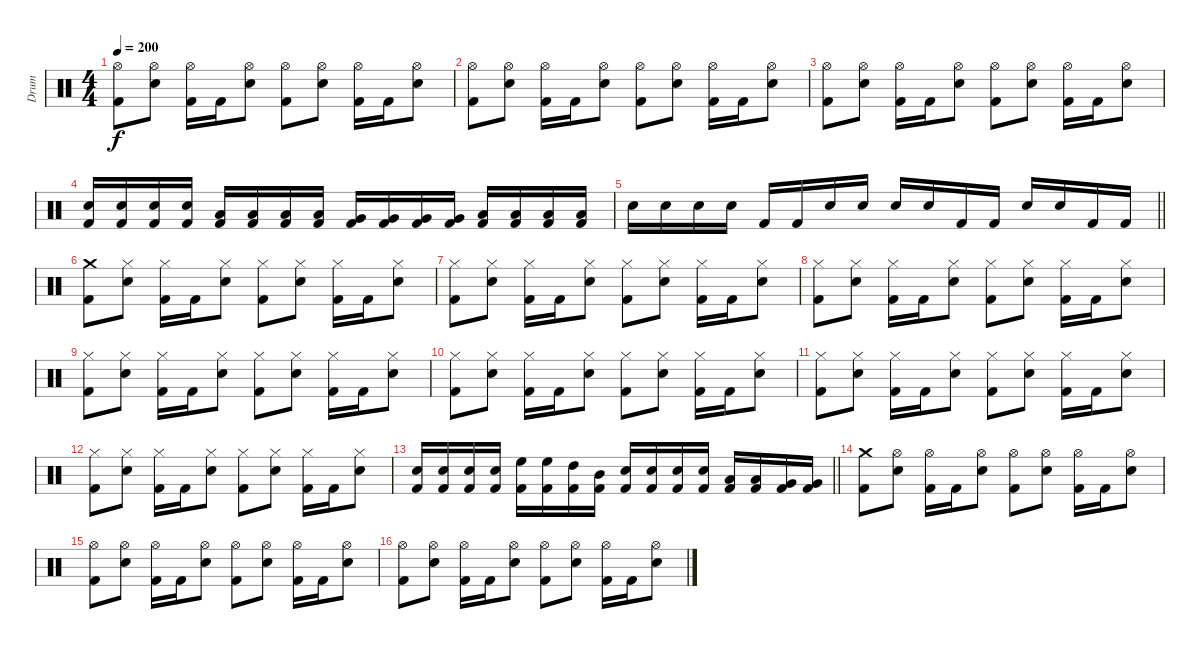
\track ("Drum" "Drum") {instrument percussion}
\staff {score}
\articulation defaults
\ts (4 4)
\tempo 200
\clef neutral
\ks c
("Kick (hit) 2" "Hi-Hat (open)").8{dy f} ("Snare (hit) 2" "Hi-Hat (open)").8 ("Kick (hit) 2" "Hi-Hat (open)").16 "Kick (hit) 2".16 ("Snare (hit) 2" "Hi-Hat (open)").8 ("Kick (hit) 2" "Hi-Hat (open)").8 ("Snare (hit) 2" "Hi-Hat (open)").8 ("Kick (hit) 2" "Hi-Hat (open)").16 "Kick (hit) 2".16 ("Snare (hit) 2" "Hi-Hat (open)").8 |
("Kick (hit) 2" "Hi-Hat (open)").8 ("Snare (hit) 2" "Hi-Hat (open)").8 ("Kick (hit) 2" "Hi-Hat (open)").16 "Kick (hit) 2".16 ("Snare (hit) 2" "Hi-Hat (open)").8 ("Kick (hit) 2" "Hi-Hat (open)").8 ("Snare (hit) 2" "Hi-Hat (open)").8 ("Kick (hit) 2" "Hi-Hat (open)").16 "Kick (hit) 2".16 ("Snare (hit) 2" "Hi-Hat (open)").8 |
("Kick (hit) 2" "Hi-Hat (open)").8 ("Snare (hit) 2" "Hi-Hat (open)").8 ("Kick (hit) 2" "Hi-Hat (open)").16 "Kick (hit) 2".16 ("Snare (hit) 2" "Hi-Hat (open)").8 ("Kick (hit) 2" "Hi-Hat (open)").8 ("Snare (hit) 2" "Hi-Hat (open)").8 ("Kick (hit) 2" "Hi-Hat (open)").16 "Kick (hit) 2".16 ("Snare (hit) 2" "Hi-Hat (open)").8 |
("Kick (hit) 2" "Snare (hit) 2").16 ("Kick (hit) 2" "Snare (hit) 2").16 ("Kick (hit) 2" "Snare (hit) 2").16 ("Kick (hit) 2" "Snare (hit) 2").16 ("Kick (hit) 2" "Low Tom (hit)").16 ("Kick (hit) 2" "Low Tom (hit)").16 ("Kick (hit) 2" "Low Tom (hit)").16 ("Kick (hit) 2" "Low Tom (hit)").16 ("Kick (hit) 2" "Very Low Tom (hit)").16 ("Kick (hit) 2" "Very Low Tom (hit)").16 ("Kick (hit) 2" "Very Low Tom (hit)").16 ("Kick (hit) 2" "Very Low Tom (hit)").16 ("Kick (hit) 2" "Low Floor Tom (hit)").16 ("Kick (hit) 2" "Low Floor Tom (hit)").16 ("Kick (hit) 2" "Low Floor Tom (hit)").16 ("Kick (hit) 2" "Low Floor Tom (hit)").16 |
\barLineRight lightlight "Snare (hit) 2".16 "Snare (hit) 2".16 "Snare (hit) 2".16 "Snare (hit) 2".16 "Kick (hit) 2".16 "Kick (hit) 2".16 "Snare (hit) 2".16 "Snare (hit) 2".16 "Snare (hit) 2".16 "Snare (hit) 2".16 "Kick (hit) 2".16 "Kick (hit) 2".16 "Snare (hit) 2".16 "Snare (hit) 2".16 "Kick (hit) 2".16 "Kick (hit) 2".16
|
\section ("" "")
("Kick (hit) 2" "Crash medium (hit)").8 ("Snare (hit) 2" "Hi-Hat (closed)").8 ("Kick (hit) 2" "Hi-Hat (closed)").16 "Kick (hit) 2".16 ("Snare (hit) 2" "Hi-Hat (closed)").8 ("Kick (hit) 2" "Hi-Hat (closed)").8 ("Snare (hit) 2" "Hi-Hat (closed)").8 ("Kick (hit) 2" "Hi-Hat (closed)").16 "Kick (hit) 2".16 ("Snare (hit) 2" "Hi-Hat (closed)").8 |
("Kick (hit) 2" "Hi-Hat (closed)").8 ("Snare (hit) 2" "Hi-Hat (closed)").8 ("Kick (hit) 2" "Hi-Hat (closed)").16 "Kick (hit) 2".16 ("Snare (hit) 2" "Hi-Hat (closed)").8 ("Kick (hit) 2" "Hi-Hat (closed)").8 ("Snare (hit) 2" "Hi-Hat (closed)").8 ("Kick (hit) 2" "Hi-Hat (closed)").16 "Kick (hit) 2".16 ("Snare (hit) 2" "Hi-Hat (closed)").8 |
("Kick (hit) 2" "Hi-Hat (closed)").8 ("Snare (hit) 2" "Hi-Hat (closed)").8 ("Kick (hit) 2" "Hi-Hat (closed)").16 "Kick (hit) 2".16 ("Snare (hit) 2" "Hi-Hat (closed)").8 ("Kick (hit) 2" "Hi-Hat (closed)").8 ("Snare (hit) 2" "Hi-Hat (closed)").8 ("Kick (hit) 2" "Hi-Hat (closed)").16 "Kick (hit) 2".16 ("Snare (hit) 2" "Hi-Hat (closed)").8 |
("Kick (hit) 2" "Hi-Hat (closed)").8 ("Snare (hit) 2" "Hi-Hat (closed)").8 ("Kick (hit) 2" "Hi-Hat (closed)").16 "Kick (hit) 2".16 ("Snare (hit) 2" "Hi-Hat (closed)").8 ("Kick (hit) 2" "Hi-Hat (closed)").8 ("Snare (hit) 2" "Hi-Hat (closed)").8 ("Kick (hit) 2" "Hi-Hat (closed)").16 "Kick (hit) 2".16 ("Snare (hit) 2" "Hi-Hat (closed)").8 |
("Kick (hit) 2" "Hi-Hat (closed)").8 ("Snare (hit) 2" "Hi-Hat (closed)").8 ("Kick (hit) 2" "Hi-Hat (closed)").16 "Kick (hit) 2".16 ("Snare (hit) 2" "Hi-Hat (closed)").8 ("Kick (hit) 2" "Hi-Hat (closed)").8 ("Snare (hit) 2" "Hi-Hat (closed)").8 ("Kick (hit) 2" "Hi-Hat (closed)").16 "Kick (hit) 2".16 ("Snare (hit) 2" "Hi-Hat (closed)").8 |
("Kick (hit) 2" "Hi-Hat (closed)").8 ("Snare (hit) 2" "Hi-Hat (closed)").8 ("Kick (hit) 2" "Hi-Hat (closed)").16 "Kick (hit) 2".16 ("Snare (hit) 2" "Hi-Hat (closed)").8 ("Kick (hit) 2" "Hi-Hat (closed)").8 ("Snare (hit) 2" "Hi-Hat (closed)").8 ("Kick (hit) 2" "Hi-Hat (closed)").16 "Kick (hit) 2".16 ("Snare (hit) 2" "Hi-Hat (closed)").8 |
("Kick (hit) 2" "Hi-Hat (closed)").8 ("Snare (hit) 2" "Hi-Hat (closed)").8 ("Kick (hit) 2" "Hi-Hat (closed)").16 "Kick (hit) 2".16 ("Snare (hit) 2" "Hi-Hat (closed)").8 ("Kick (hit) 2" "Hi-Hat (closed)").8 ("Snare (hit) 2" "Hi-Hat (closed)").8 ("Kick (hit) 2" "Hi-Hat (closed)").16 "Kick (hit) 2".16 ("Snare (hit) 2" "Hi-Hat (closed)").8 |
\barLineRight lightlight
("Kick (hit) 2" "Snare (hit) 2").16 ("Kick (hit) 2" "Snare (hit) 2").16 ("Kick (hit) 2" "Snare (hit) 2").16 ("Kick (hit) 2" "Snare (hit) 2").16 ("Kick (hit) 2" "High Floor Tom (hit)").16 ("Kick (hit) 2" "High Floor Tom (hit)").16 ("Kick (hit) 2" "High Tom (hit)").16 ("Kick (hit) 2" "Mid Tom (hit)").16 ("Kick (hit) 2" "Snare (hit) 2").16 ("Kick (hit) 2" "Snare (hit) 2").16 ("Kick (hit) 2" "Snare (hit) 2").16 ("Kick (hit) 2" "Snare (hit) 2").16 ("Kick (hit) 2" "Low Tom (hit)").16 ("Kick (hit) 2" "Low Tom (hit)").16 ("Kick (hit) 2" "Very Low Tom (hit)").16 ("Kick (hit) 2" "Very Low Tom (hit)").16 |
\section ("" "")
("Kick (hit) 2" "Crash medium (hit)").8 ("Snare (hit) 2" "Hi-Hat (open)").8 ("Kick (hit) 2" "Hi-Hat (open)").16 "Kick (hit) 2".16 ("Snare (hit) 2" "Hi-Hat (open)").8 ("Kick (hit) 2" "Hi-Hat (open)").8 ("Snare (hit) 2" "Hi-Hat (open)").8 ("Kick (hit) 2" "Hi-Hat (open)").16 "Kick (hit) 2".16 ("Snare (hit) 2" "Hi-Hat (open)").8 |
("Kick (hit) 2" "Hi-Hat (open)").8 ("Snare (hit) 2" "Hi-Hat (open)").8 ("Kick (hit) 2" "Hi-Hat (open)").16 "Kick (hit) 2".16 ("Snare (hit) 2" "Hi-Hat (open)").8 ("Kick (hit) 2" "Hi-Hat (open)").8 ("Snare (hit) 2" "Hi-Hat (open)").8 ("Kick (hit) 2" "Hi-Hat (open)").16 "Kick (hit) 2".16 ("Snare (hit) 2" "Hi-Hat (open)").8 |
("Kick (hit) 2" "Hi-Hat (open)").8 ("Snare (hit) 2" "Hi-Hat (open)").8 ("Kick (hit) 2" "Hi-Hat (open)").16 "Kick (hit) 2".16 ("Snare (hit) 2" "Hi-Hat (open)").8 ("Kick (hit) 2" "Hi-Hat (open)").8 ("Snare (hit) 2" "Hi-Hat (open)").8 ("Kick (hit) 2" "Hi-Hat (open)").16 "Kick (hit) 2".16 ("Snare (hit) 2" "Hi-Hat (open)").8
